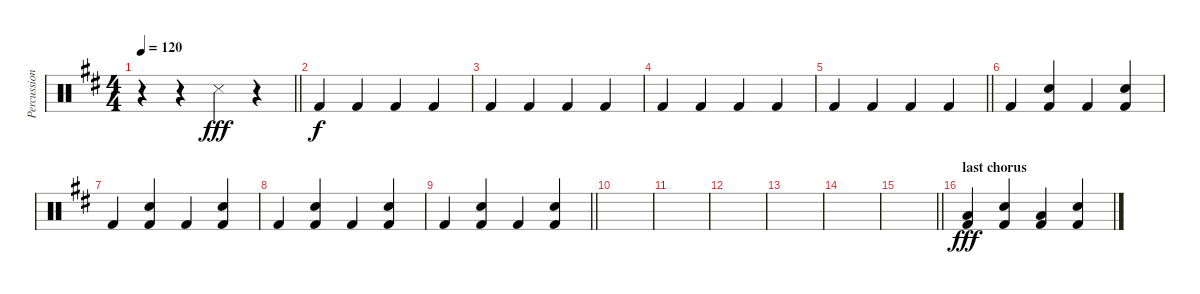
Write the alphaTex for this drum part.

\track ("Percussion" "Percussion") {instrument percussion}
\staff {score}
\articulation defaults
\ts (4 4)
\tempo 120
\clef neutral
\barLineRight lightlight
\ks bminor
r.4{dy fff} r.4 "Snare (side stick) 3".4 r.4 |
"Kick (hit) 2".4{dy f} "Kick (hit) 2".4 "Kick (hit) 2".4 "Kick (hit) 2".4 |
"Kick (hit) 2".4 "Kick (hit) 2".4 "Kick (hit) 2".4 "Kick (hit) 2".4 |
"Kick (hit) 2".4 "Kick (hit) 2".4 "Kick (hit) 2".4 "Kick (hit) 2".4 |
\barLineRight lightlight "Kick (hit) 2".4 "Kick (hit) 2".4 "Kick (hit) 2".4 "Kick (hit) 2".4
|
"Kick (hit) 2".4 ("Kick (hit) 2" "Hand Clap (hit)").4 "Kick (hit) 2".4 ("Kick (hit) 2" "Hand Clap (hit)").4 |
"Kick (hit) 2".4 ("Kick (hit) 2" "Hand Clap (hit)").4 "Kick (hit) 2".4 ("Kick (hit) 2" "Hand Clap (hit)").4 |
"Kick (hit) 2".4 ("Kick (hit) 2" "Hand Clap (hit)").4 "Kick (hit) 2".4 ("Kick (hit) 2" "Hand Clap (hit)").4 |
\barLineRight lightlight "Kick (hit) 2".4
("Kick (hit) 2" "Hand Clap (hit)").4 "Kick (hit) 2".4 ("Kick (hit) 2" "Hand Clap (hit)").4 |
|
|
|
|
|
\barLineRight lightlight
|
\section ("" "last chorus")
("Kick (hit) 2" "Low Floor Tom (hit)").4{dy fff} ("Kick (hit) 2" "Snare (hit) 2").4 ("Kick (hit) 2" "Low Floor Tom (hit)").4 ("Kick (hit) 2" "Snare (hit) 2").4
